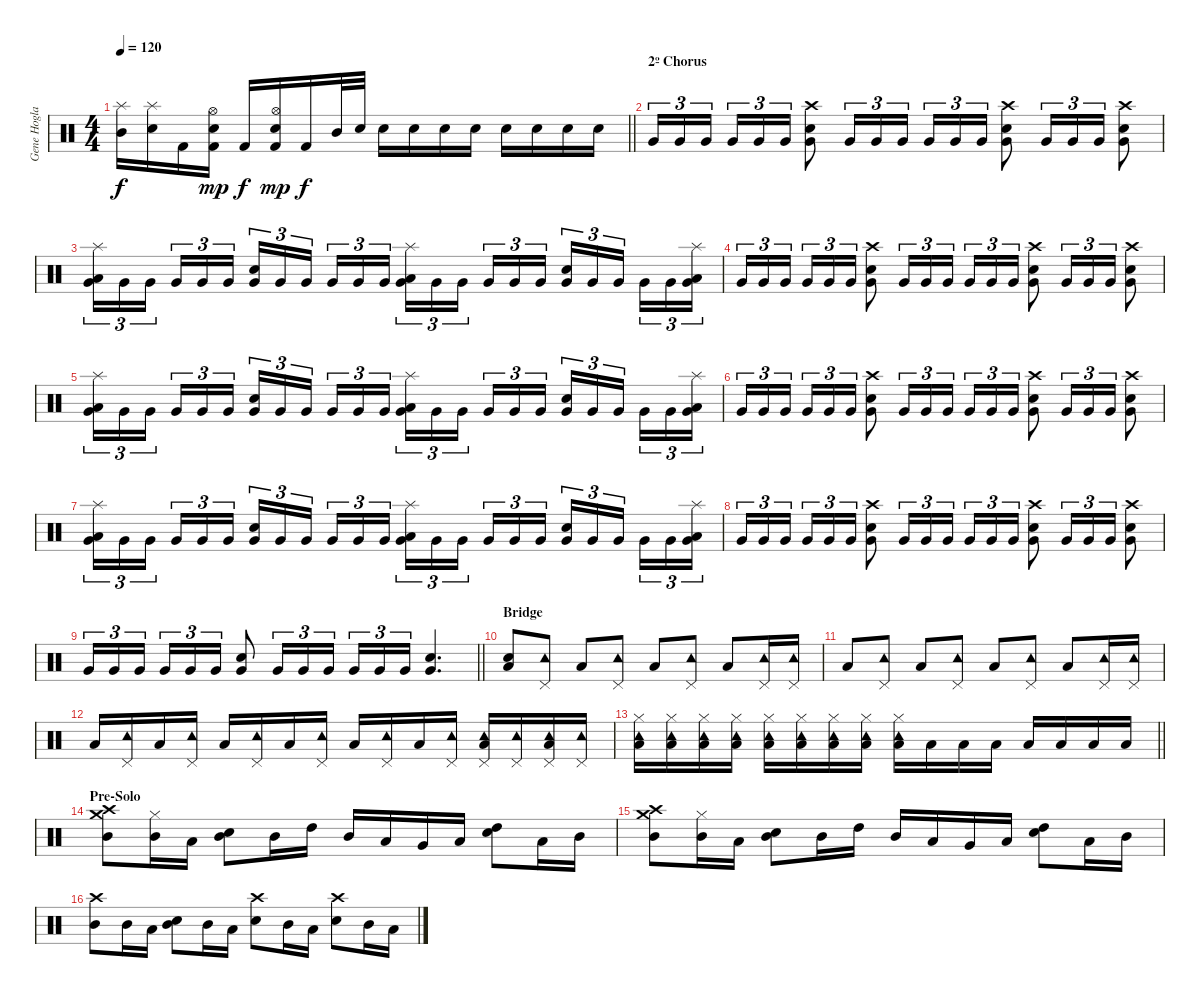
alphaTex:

\track ("Gene Hoglan" "Gene Hogla") {instrument percussion}
\staff {score}
\articulation defaults
\ts (4 4)
\tempo 120
\clef neutral
\barLineRight lightlight
\ks c
("Splash (hit)" "Mid Tom (hit)").16{dy f} ("Electric Snare (hit)" "Splash (hit)").16 "Kick (hit) 2".16 ("Hi-Hat (open)" "Snare (hit) 2" "Kick (hit) 2").16{dy mp} "Kick (hit) 2".16{dy f} ("Hi-Hat (open)" "Snare (hit) 2" "Kick (hit) 2").16{dy mp} "Kick (hit) 2".16{dy f} "Mid Tom (hit)".32 "Electric Snare (hit)".32 "Electric Snare (hit)".16 "Electric Snare (hit)".16 "Electric Snare (hit)".16 "Electric Snare (hit)".16 "Electric Snare (hit)".16 "Electric Snare (hit)".16 "Electric Snare (hit)".16 "Electric Snare (hit)".16 |
\section ("" "2º Chorus")
"Very Low Tom (hit)".16{tu (3 2)} "Very Low Tom (hit)".16{tu (3 2)} "Very Low Tom (hit)".16{tu (3 2) beam splitsecondary} "Very Low Tom (hit)".16{tu (3 2)} "Very Low Tom (hit)".16{tu (3 2)} "Very Low Tom (hit)".16{tu (3 2)} ("Very Low Tom (hit)" "Electric Snare (hit)" "Crash high (hit)").8 "Very Low Tom (hit)".16{tu (3 2)} "Very Low Tom (hit)".16{tu (3 2)} "Very Low Tom (hit)".16{tu (3 2)} "Very Low Tom (hit)".16{tu (3 2)} "Very Low Tom (hit)".16{tu (3 2)} "Very Low Tom (hit)".16{tu (3 2)} ("Very Low Tom (hit)" "Electric Snare (hit)" "Crash high (hit)").8 "Very Low Tom (hit)".16{tu (3 2)} "Very Low Tom (hit)".16{tu (3 2)} "Very Low Tom (hit)".16{tu (3 2)} ("Very Low Tom (hit)" "Electric Snare (hit)" "Crash high (hit)").8 |
("Low Tom (hit)" "Very Low Tom (hit)" "Splash (hit)").16{tu (3 2)} "Very Low Tom (hit)".16{tu (3 2)} "Very Low Tom (hit)".16{tu (3 2) beam splitsecondary} "Very Low Tom (hit)".16{tu (3 2)} "Very Low Tom (hit)".16{tu (3 2)} "Very Low Tom (hit)".16{tu (3 2)} ("Very Low Tom (hit)" "Electric Snare (hit)").16{tu (3 2)} "Very Low Tom (hit)".16{tu (3 2)} "Very Low Tom (hit)".16{tu (3 2) beam splitsecondary} "Very Low Tom (hit)".16{tu (3 2)} "Very Low Tom (hit)".16{tu (3 2)} "Very Low Tom (hit)".16{tu (3 2)} ("Low Tom (hit)" "Very Low Tom (hit)" "Splash (hit)").16{tu (3 2)} "Very Low Tom (hit)".16{tu (3 2)} "Very Low Tom (hit)".16{tu (3 2) beam splitsecondary} "Very Low Tom (hit)".16{tu (3 2)} "Very Low Tom (hit)".16{tu (3 2)} "Very Low Tom (hit)".16{tu (3 2)} ("Very Low Tom (hit)" "Electric Snare (hit)").16{tu (3 2)} "Very Low Tom (hit)".16{tu (3 2)} "Very Low Tom (hit)".16{tu (3 2) beam splitsecondary} "Very Low Tom (hit)".16{tu (3 2)} "Very Low Tom (hit)".16{tu (3 2)} ("Low Tom (hit)" "Very Low Tom (hit)" "Splash (hit)").16{tu (3 2)} |
"Very Low Tom (hit)".16{tu (3 2)} "Very Low Tom (hit)".16{tu (3 2)} "Very Low Tom (hit)".16{tu (3 2) beam splitsecondary} "Very Low Tom (hit)".16{tu (3 2)} "Very Low Tom (hit)".16{tu (3 2)} "Very Low Tom (hit)".16{tu (3 2)} ("Very Low Tom (hit)" "Electric Snare (hit)" "Crash high (hit)").8 "Very Low Tom (hit)".16{tu (3 2)} "Very Low Tom (hit)".16{tu (3 2)} "Very Low Tom (hit)".16{tu (3 2)} "Very Low Tom (hit)".16{tu (3 2)} "Very Low Tom (hit)".16{tu (3 2)} "Very Low Tom (hit)".16{tu (3 2)} ("Very Low Tom (hit)" "Electric Snare (hit)" "Crash high (hit)").8 "Very Low Tom (hit)".16{tu (3 2)} "Very Low Tom (hit)".16{tu (3 2)} "Very Low Tom (hit)".16{tu (3 2)} ("Very Low Tom (hit)" "Electric Snare (hit)" "Crash high (hit)").8 |
("Low Tom (hit)" "Very Low Tom (hit)" "Splash (hit)").16{tu (3 2)} "Very Low Tom (hit)".16{tu (3 2)} "Very Low Tom (hit)".16{tu (3 2) beam splitsecondary} "Very Low Tom (hit)".16{tu (3 2)} "Very Low Tom (hit)".16{tu (3 2)} "Very Low Tom (hit)".16{tu (3 2)} ("Very Low Tom (hit)" "Electric Snare (hit)").16{tu (3 2)} "Very Low Tom (hit)".16{tu (3 2)} "Very Low Tom (hit)".16{tu (3 2) beam splitsecondary} "Very Low Tom (hit)".16{tu (3 2)} "Very Low Tom (hit)".16{tu (3 2)} "Very Low Tom (hit)".16{tu (3 2)} ("Low Tom (hit)" "Very Low Tom (hit)" "Splash (hit)").16{tu (3 2)} "Very Low Tom (hit)".16{tu (3 2)} "Very Low Tom (hit)".16{tu (3 2) beam splitsecondary} "Very Low Tom (hit)".16{tu (3 2)} "Very Low Tom (hit)".16{tu (3 2)} "Very Low Tom (hit)".16{tu (3 2)} ("Very Low Tom (hit)" "Electric Snare (hit)").16{tu (3 2)} "Very Low Tom (hit)".16{tu (3 2)} "Very Low Tom (hit)".16{tu (3 2) beam splitsecondary} "Very Low Tom (hit)".16{tu (3 2)} "Very Low Tom (hit)".16{tu (3 2)} ("Low Tom (hit)" "Very Low Tom (hit)" "Splash (hit)").16{tu (3 2)} |
"Very Low Tom (hit)".16{tu (3 2)} "Very Low Tom (hit)".16{tu (3 2)} "Very Low Tom (hit)".16{tu (3 2) beam splitsecondary} "Very Low Tom (hit)".16{tu (3 2)} "Very Low Tom (hit)".16{tu (3 2)} "Very Low Tom (hit)".16{tu (3 2)} ("Very Low Tom (hit)" "Electric Snare (hit)" "Crash high (hit)").8 "Very Low Tom (hit)".16{tu (3 2)} "Very Low Tom (hit)".16{tu (3 2)} "Very Low Tom (hit)".16{tu (3 2)} "Very Low Tom (hit)".16{tu (3 2)} "Very Low Tom (hit)".16{tu (3 2)} "Very Low Tom (hit)".16{tu (3 2)} ("Very Low Tom (hit)" "Electric Snare (hit)" "Crash high (hit)").8 "Very Low Tom (hit)".16{tu (3 2)} "Very Low Tom (hit)".16{tu (3 2)} "Very Low Tom (hit)".16{tu (3 2)} ("Very Low Tom (hit)" "Electric Snare (hit)" "Crash high (hit)").8 |
("Low Tom (hit)" "Very Low Tom (hit)" "Splash (hit)").16{tu (3 2)} "Very Low Tom (hit)".16{tu (3 2)} "Very Low Tom (hit)".16{tu (3 2) beam splitsecondary} "Very Low Tom (hit)".16{tu (3 2)} "Very Low Tom (hit)".16{tu (3 2)} "Very Low Tom (hit)".16{tu (3 2)} ("Very Low Tom (hit)" "Electric Snare (hit)").16{tu (3 2)} "Very Low Tom (hit)".16{tu (3 2)} "Very Low Tom (hit)".16{tu (3 2) beam splitsecondary} "Very Low Tom (hit)".16{tu (3 2)} "Very Low Tom (hit)".16{tu (3 2)} "Very Low Tom (hit)".16{tu (3 2)} ("Low Tom (hit)" "Very Low Tom (hit)" "Splash (hit)").16{tu (3 2)} "Very Low Tom (hit)".16{tu (3 2)} "Very Low Tom (hit)".16{tu (3 2) beam splitsecondary} "Very Low Tom (hit)".16{tu (3 2)} "Very Low Tom (hit)".16{tu (3 2)} "Very Low Tom (hit)".16{tu (3 2)} ("Very Low Tom (hit)" "Electric Snare (hit)").16{tu (3 2)} "Very Low Tom (hit)".16{tu (3 2)} "Very Low Tom (hit)".16{tu (3 2) beam splitsecondary} "Very Low Tom (hit)".16{tu (3 2)} "Very Low Tom (hit)".16{tu (3 2)} ("Low Tom (hit)" "Very Low Tom (hit)" "Splash (hit)").16{tu (3 2)} |
"Very Low Tom (hit)".16{tu (3 2)} "Very Low Tom (hit)".16{tu (3 2)} "Very Low Tom (hit)".16{tu (3 2) beam splitsecondary} "Very Low Tom (hit)".16{tu (3 2)} "Very Low Tom (hit)".16{tu (3 2)} "Very Low Tom (hit)".16{tu (3 2)} ("Very Low Tom (hit)" "Electric Snare (hit)" "Crash high (hit)").8 "Very Low Tom (hit)".16{tu (3 2)} "Very Low Tom (hit)".16{tu (3 2)} "Very Low Tom (hit)".16{tu (3 2)} "Very Low Tom (hit)".16{tu (3 2)} "Very Low Tom (hit)".16{tu (3 2)} "Very Low Tom (hit)".16{tu (3 2)} ("Very Low Tom (hit)" "Electric Snare (hit)" "Crash high (hit)").8 "Very Low Tom (hit)".16{tu (3 2)} "Very Low Tom (hit)".16{tu (3 2)} "Very Low Tom (hit)".16{tu (3 2)} ("Very Low Tom (hit)" "Electric Snare (hit)" "Crash high (hit)").8 |
\barLineRight lightlight "Very Low Tom (hit)".16{tu (3 2)} "Very Low Tom (hit)".16{tu (3 2)} "Very Low Tom (hit)".16{tu (3 2) beam splitsecondary} "Very Low Tom (hit)".16{tu (3 2)} "Very Low Tom (hit)".16{tu (3 2)} "Very Low Tom (hit)".16{tu (3 2)}
("Very Low Tom (hit)" "Electric Snare (hit)").8 "Very Low Tom (hit)".16{tu (3 2)} "Very Low Tom (hit)".16{tu (3 2)} "Very Low Tom (hit)".16{tu (3 2)} "Very Low Tom (hit)".16{tu (3 2)} "Very Low Tom (hit)".16{tu (3 2)} "Very Low Tom (hit)".16{tu (3 2)} ("Very Low Tom (hit)" "Electric Snare (hit)").4{d} |
\section ("" "Bridge")
("Low Floor Tom (hit)" "Electric Snare (hit)").8 ("Pedal Hi-Hat (hit)" "Tambourine (hit)").8 "Low Floor Tom (hit)".8 ("Pedal Hi-Hat (hit)" "Tambourine (hit)").8 "Low Floor Tom (hit)".8 ("Pedal Hi-Hat (hit)" "Tambourine (hit)").8 "Low Floor Tom (hit)".8 ("Pedal Hi-Hat (hit)" "Tambourine (hit)").16 ("Pedal Hi-Hat (hit)" "Tambourine (hit)").16 |
"Low Floor Tom (hit)".8 ("Pedal Hi-Hat (hit)" "Tambourine (hit)").8 "Low Floor Tom (hit)".8 ("Pedal Hi-Hat (hit)" "Tambourine (hit)").8 "Low Floor Tom (hit)".8 ("Pedal Hi-Hat (hit)" "Tambourine (hit)").8 "Low Floor Tom (hit)".8 ("Pedal Hi-Hat (hit)" "Tambourine (hit)").16 ("Pedal Hi-Hat (hit)" "Tambourine (hit)").16 |
"Low Floor Tom (hit)".16 ("Pedal Hi-Hat (hit)" "Tambourine (hit)").16 "Low Floor Tom (hit)".16 ("Pedal Hi-Hat (hit)" "Tambourine (hit)").16 "Low Floor Tom (hit)".16 ("Pedal Hi-Hat (hit)" "Tambourine (hit)").16 "Low Floor Tom (hit)".16 ("Pedal Hi-Hat (hit)" "Tambourine (hit)").16 "Low Floor Tom (hit)".16 ("Pedal Hi-Hat (hit)" "Tambourine (hit)").16 "Low Floor Tom (hit)".16 ("Pedal Hi-Hat (hit)" "Tambourine (hit)").16 ("Pedal Hi-Hat (hit)" "Tambourine (hit)" "Low Floor Tom (hit)").16 ("Pedal Hi-Hat (hit)" "Tambourine (hit)").16 ("Pedal Hi-Hat (hit)" "Tambourine (hit)" "Low Floor Tom (hit)").16 ("Pedal Hi-Hat (hit)" "Tambourine (hit)").16 |
\barLineRight lightlight
("Hi-Hat (closed)" "Tambourine (hit)" "Low Floor Tom (hit)").16 ("Hi-Hat (closed)" "Tambourine (hit)" "Low Floor Tom (hit)").16 ("Hi-Hat (closed)" "Tambourine (hit)" "Low Floor Tom (hit)").16 ("Hi-Hat (closed)" "Tambourine (hit)" "Low Floor Tom (hit)").16 ("Hi-Hat (closed)" "Tambourine (hit)" "Low Floor Tom (hit)").16 ("Hi-Hat (closed)" "Tambourine (hit)" "Low Floor Tom (hit)").16 ("Hi-Hat (closed)" "Tambourine (hit)" "Low Floor Tom (hit)").16 ("Hi-Hat (closed)" "Tambourine (hit)" "Low Floor Tom (hit)").16 ("Hi-Hat (closed)" "Tambourine (hit)" "Low Floor Tom (hit)").16 "Low Tom (hit)".16 "Low Tom (hit)".16 "Low Tom (hit)".16 "Low Tom (hit)".16 "Low Tom (hit)".16 "Low Tom (hit)".16 "Low Tom (hit)".16 |
\section ("" "Pre-Solo")
("Crash high (hit)" "Mid Tom (hit)" "Crash medium (hit)").8 ("Mid Tom (hit)" "Hi-Hat (closed)").16 "Low Tom (hit)".16 ("Electric Snare (hit)" "Mid Tom (hit)").8 "Mid Tom (hit)".16 "High Tom (hit)".16 "Mid Tom (hit)".16 "Low Tom (hit)".16 "Very Low Tom (hit)".16 "Low Tom (hit)".16 ("Electric Snare (hit)" "High Tom (hit)").8 "Low Tom (hit)".16 "Mid Tom (hit)".16 |
("Crash high (hit)" "Mid Tom (hit)" "Crash medium (hit)").8 ("Mid Tom (hit)" "Hi-Hat (closed)").16 "Low Tom (hit)".16 ("Electric Snare (hit)" "Mid Tom (hit)").8 "Mid Tom (hit)".16 "High Tom (hit)".16 "Mid Tom (hit)".16 "Low Tom (hit)".16 "Very Low Tom (hit)".16 "Low Tom (hit)".16 ("Electric Snare (hit)" "High Tom (hit)").8 "Low Tom (hit)".16 "Mid Tom (hit)".16 |
("Mid Tom (hit)" "Crash high (hit)").8 "Mid Tom (hit)".16 "Low Tom (hit)".16 ("Electric Snare (hit)" "Mid Tom (hit)").8 "Mid Tom (hit)".16 "Low Tom (hit)".16 ("Electric Snare (hit)" "Crash high (hit)").8 "Mid Tom (hit)".16 "Low Tom (hit)".16 ("Electric Snare (hit)" "Crash high (hit)").8 "Mid Tom (hit)".16 "Low Tom (hit)".16
